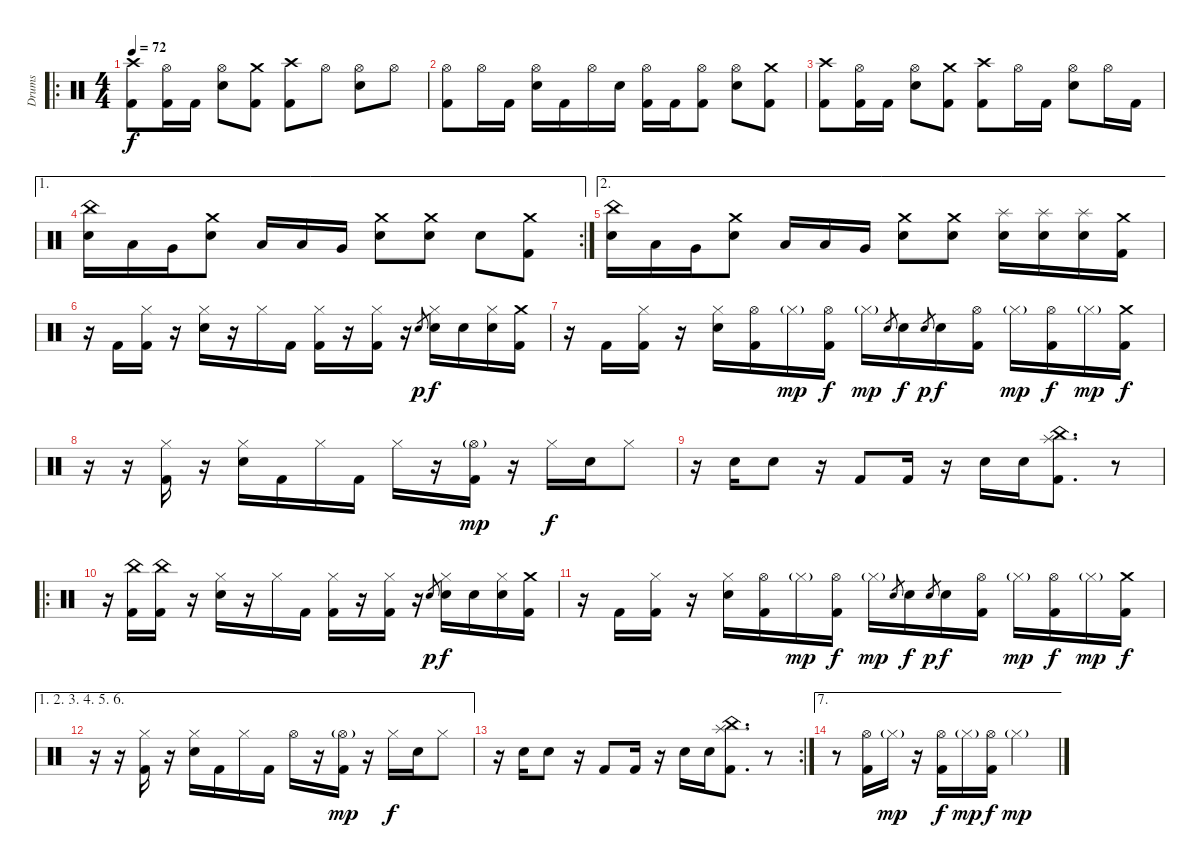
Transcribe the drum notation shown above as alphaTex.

\track ("Drums" "Drums") {instrument percussion}
\staff {score}
\articulation defaults
\ro
\ts (4 4)
\tempo 72
\clef neutral
\ks c
("Crash high (hit)" "Kick (hit) 2").8{dy f} ("Hi-Hat (open)" "Kick (hit) 2").16 "Kick (hit) 2".16 ("Hi-Hat (open)" "Electric Snare (hit)").8 ("Crash medium (hit)" "Kick (hit) 2").8 ("Crash high (hit)" "Kick (hit) 2").8 "Hi-Hat (open)".8 ("Hi-Hat (open)" "Electric Snare (hit)").8 "Hi-Hat (open)".8 |
("Hi-Hat (open)" "Kick (hit) 2").8 "Hi-Hat (open)".16 "Kick (hit) 2".16 ("Hi-Hat (open)" "Electric Snare (hit)").16 "Kick (hit) 2".16 "Hi-Hat (open)".16 "Electric Snare (hit)".16 ("Hi-Hat (open)" "Kick (hit) 2").16 "Kick (hit) 2".16 ("Hi-Hat (open)" "Kick (hit) 2").8 ("Hi-Hat (open)" "Electric Snare (hit)").8 ("Crash medium (hit)" "Kick (hit) 2").8 |
("Crash high (hit)" "Kick (hit) 2").8 ("Hi-Hat (open)" "Kick (hit) 2").16 "Kick (hit) 2".16 ("Hi-Hat (open)" "Electric Snare (hit)").8 ("Crash medium (hit)" "Kick (hit) 2").8 ("Crash high (hit)" "Kick (hit) 2").8 "Hi-Hat (open)".16 "Kick (hit) 2".16 ("Hi-Hat (open)" "Electric Snare (hit)").8 "Hi-Hat (open)".16 "Kick (hit) 2".16 |
\ae 1
\rc 2
("China (hit)" "Electric Snare (hit)").16 "Low Tom (hit)".16 "Very Low Tom (hit)".16 ("Crash medium (hit)" "Electric Snare (hit)").8 "Low Tom (hit)".16 "Low Tom (hit)".16 "Very Low Tom (hit)".16 ("Crash medium (hit)" "Electric Snare (hit)").8 ("Crash medium (hit)" "Electric Snare (hit)").8 "Electric Snare (hit)".8 ("Crash medium (hit)" "Kick (hit) 2").8 |
\ae 2
("China (hit)" "Electric Snare (hit)").16 "Low Tom (hit)".16 "Very Low Tom (hit)".16 ("Crash medium (hit)" "Electric Snare (hit)").8 "Low Tom (hit)".16 "Low Tom (hit)".16 "Very Low Tom (hit)".16 ("Crash medium (hit)" "Electric Snare (hit)").8 ("Crash medium (hit)" "Electric Snare (hit)").8 ("Splash (hit)" "Electric Snare (hit)").16 ("Splash (hit)" "Electric Snare (hit)").16 ("Splash (hit)" "Electric Snare (hit)").16 ("Crash medium (hit)" "Kick (hit) 2").16 |
r.16 "Kick (hit) 2".16 ("Hi-Hat (closed)" "Kick (hit) 2").16 r.16 ("Hi-Hat (closed)" "Electric Snare (hit)").16 r.16 "Hi-Hat (closed)".16 "Kick (hit) 2".16 ("Hi-Hat (closed)" "Kick (hit) 2").16 r.16 ("Hi-Hat (closed)" "Kick (hit) 2").16 r.16 "Electric Snare (hit)".8{gr dy p} ("Hi-Hat (closed)" "Electric Snare (hit)").16{dy f} "Electric Snare (hit)".16 ("Hi-Hat (closed)" "Electric Snare (hit)").16 ("Crash medium (hit)" "Kick (hit) 2").16 |
r.16 "Kick (hit) 2".16 ("Hi-Hat (closed)" "Kick (hit) 2").16 r.16 ("Hi-Hat (closed)" "Electric Snare (hit)").16 ("Hi-Hat (open)" "Kick (hit) 2").16 "Hi-Hat (closed)"{g}.16{dy mp} ("Hi-Hat (open)" "Kick (hit) 2").16{dy f} "Hi-Hat (closed)"{g}.16{dy mp} "Electric Snare (hit)".8{gr} "Electric Snare (hit)".16{dy f} "Electric Snare (hit)".8{gr dy p} "Electric Snare (hit)".16{dy f} ("Hi-Hat (open)" "Kick (hit) 2").16 "Hi-Hat (closed)"{g}.16{dy mp} ("Hi-Hat (open)" "Kick (hit) 2").16{dy f} "Hi-Hat (closed)"{g}.16{dy mp} ("Crash medium (hit)" "Kick (hit) 2").16{dy f} |
r.16 r.16 ("Hi-Hat (closed)" "Kick (hit) 2").16 r.16 ("Hi-Hat (closed)" "Electric Snare (hit)").16 "Kick (hit) 2".16 "Hi-Hat (closed)".16 "Kick (hit) 2".16 "Hi-Hat (closed)".16 r.16 ("Hi-Hat (open)"{g} "Kick (hit) 2").16{dy mp} r.16 "Hi-Hat (closed)".16{dy f} "Electric Snare (hit)".16 "Hi-Hat (closed)".8 |
r.16 "Electric Snare (hit)".16 "Electric Snare (hit)".8 r.16 "Kick (hit) 2".8 "Kick (hit) 2".16 r.16 "Electric Snare (hit)".16 "Electric Snare (hit)".16 ("China (hit)" "Splash (hit)" "Kick (hit) 2").8{d} r.8 |
\ro
r.16 ("China (hit)" "Kick (hit) 2").16 ("China (hit)" "Kick (hit) 2").16 r.16 ("Hi-Hat (closed)" "Electric Snare (hit)").16 r.16 "Hi-Hat (closed)".16 "Kick (hit) 2".16 ("Hi-Hat (closed)" "Kick (hit) 2").16 r.16 ("Hi-Hat (closed)" "Kick (hit) 2").16 r.16 "Electric Snare (hit)".8{gr dy p} ("Hi-Hat (closed)" "Electric Snare (hit)").16{dy f} "Electric Snare (hit)".16 ("Hi-Hat (closed)" "Electric Snare (hit)").16 ("Crash medium (hit)" "Kick (hit) 2").16 |
r.16 "Kick (hit) 2".16 ("Hi-Hat (closed)" "Kick (hit) 2").16 r.16 ("Hi-Hat (closed)" "Electric Snare (hit)").16 ("Hi-Hat (open)" "Kick (hit) 2").16 "Hi-Hat (closed)"{g}.16{dy mp} ("Hi-Hat (open)" "Kick (hit) 2").16{dy f} "Hi-Hat (closed)"{g}.16{dy mp} "Electric Snare (hit)".8{gr} "Electric Snare (hit)".16{dy f} "Electric Snare (hit)".8{gr dy p} "Electric Snare (hit)".16{dy f} ("Hi-Hat (open)" "Kick (hit) 2").16 "Hi-Hat (closed)"{g}.16{dy mp} ("Hi-Hat (open)" "Kick (hit) 2").16{dy f} "Hi-Hat (closed)"{g}.16{dy mp} ("Crash medium (hit)" "Kick (hit) 2").16{dy f} |
\ae (1 2 3 4 5 6)
r.16 r.16 ("Hi-Hat (closed)" "Kick (hit) 2").16 r.16 ("Hi-Hat (closed)" "Electric Snare (hit)").16 "Kick (hit) 2".16 "Hi-Hat (closed)".16 "Kick (hit) 2".16 "Hi-Hat (open)".16 r.16 ("Hi-Hat (open)"{g} "Kick (hit) 2").16{dy mp} r.16 "Hi-Hat (closed)".16{dy f} "Electric Snare (hit)".16 "Hi-Hat (closed)".8 |
\rc 2
r.16 "Electric Snare (hit)".16 "Electric Snare (hit)".8 r.16 "Kick (hit) 2".8 "Kick (hit) 2".16 r.16 "Electric Snare (hit)".16 "Electric Snare (hit)".16 ("China (hit)" "Splash (hit)" "Kick (hit) 2").8{d} r.8 |
\ae 7
r.8 ("Hi-Hat (open)" "Kick (hit) 2").16 "Hi-Hat (closed)"{g}.16{dy mp} r.16 ("Hi-Hat (open)" "Kick (hit) 2").16{dy f} "Hi-Hat (closed)"{g}.16{dy mp} ("Hi-Hat (open)" "Kick (hit) 2").16{dy f} "Hi-Hat (closed)"{g}.2{dy mp}
